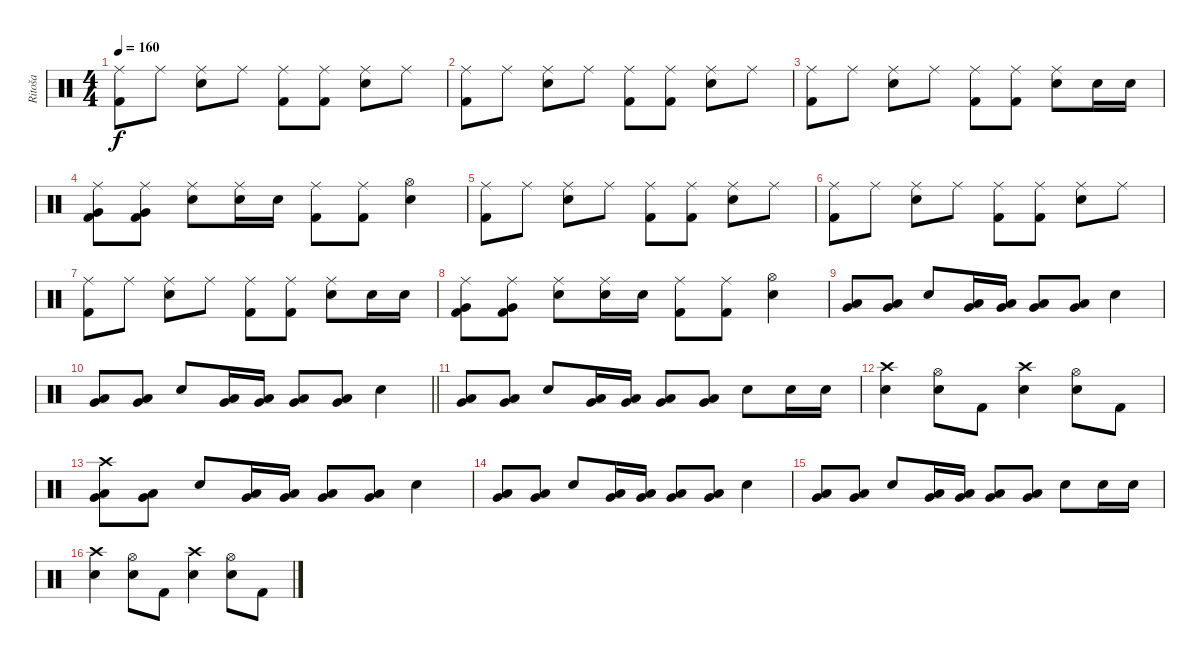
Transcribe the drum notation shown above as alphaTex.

\track ("Ritoša" "Ritoša") {instrument percussion}
\staff {score}
\articulation defaults
\ts (4 4)
\tempo 160
\clef neutral
\ks c
("Ride (middle)" "Kick (hit) 2").8{dy f} "Ride (middle)".8 ("Ride (middle)" "Electric Snare (hit)").8 "Ride (middle)".8 ("Ride (middle)" "Kick (hit) 2").8 ("Ride (middle)" "Kick (hit) 2").8 ("Ride (middle)" "Electric Snare (hit)").8 "Ride (middle)".8 |
("Ride (middle)" "Kick (hit) 2").8 "Ride (middle)".8 ("Ride (middle)" "Electric Snare (hit)").8 "Ride (middle)".8 ("Ride (middle)" "Kick (hit) 2").8 ("Ride (middle)" "Kick (hit) 2").8 ("Ride (middle)" "Electric Snare (hit)").8 "Ride (middle)".8 |
("Ride (middle)" "Kick (hit) 2").8 "Ride (middle)".8 ("Ride (middle)" "Electric Snare (hit)").8 "Ride (middle)".8 ("Ride (middle)" "Kick (hit) 2").8 ("Ride (middle)" "Kick (hit) 2").8 ("Ride (middle)" "Electric Snare (hit)").8 "Electric Snare (hit)".16 "Electric Snare (hit)".16 |
("Ride (middle)" "Very Low Tom (hit)" "Kick (hit) 2").8 ("Ride (middle)" "Very Low Tom (hit)" "Kick (hit) 2").8 ("Ride (middle)" "Electric Snare (hit)").8 ("Ride (middle)" "Electric Snare (hit)").16 "Electric Snare (hit)".16 ("Ride (middle)" "Kick (hit) 2").8 ("Ride (middle)" "Kick (hit) 2").8 ("Hi-Hat (open)" "Electric Snare (hit)").4 |
("Ride (middle)" "Kick (hit) 2").8 "Ride (middle)".8 ("Ride (middle)" "Electric Snare (hit)").8 "Ride (middle)".8 ("Ride (middle)" "Kick (hit) 2").8 ("Ride (middle)" "Kick (hit) 2").8 ("Ride (middle)" "Electric Snare (hit)").8 "Ride (middle)".8 |
("Ride (middle)" "Kick (hit) 2").8 "Ride (middle)".8 ("Ride (middle)" "Electric Snare (hit)").8 "Ride (middle)".8 ("Ride (middle)" "Kick (hit) 2").8 ("Ride (middle)" "Kick (hit) 2").8 ("Ride (middle)" "Electric Snare (hit)").8 "Ride (middle)".8 |
("Ride (middle)" "Kick (hit) 2").8 "Ride (middle)".8 ("Ride (middle)" "Electric Snare (hit)").8 "Ride (middle)".8 ("Ride (middle)" "Kick (hit) 2").8 ("Ride (middle)" "Kick (hit) 2").8 ("Ride (middle)" "Electric Snare (hit)").8 "Electric Snare (hit)".16 "Electric Snare (hit)".16 |
("Ride (middle)" "Very Low Tom (hit)" "Kick (hit) 2").8 ("Ride (middle)" "Very Low Tom (hit)" "Kick (hit) 2").8 ("Ride (middle)" "Electric Snare (hit)").8 ("Ride (middle)" "Electric Snare (hit)").16 "Electric Snare (hit)".16 ("Ride (middle)" "Kick (hit) 2").8 ("Ride (middle)" "Kick (hit) 2").8 ("Hi-Hat (open)" "Electric Snare (hit)").4 |
("Low Floor Tom (hit)" "Very Low Tom (hit)").8 ("Low Floor Tom (hit)" "Very Low Tom (hit)").8 "Electric Snare (hit)".8 ("Low Floor Tom (hit)" "Very Low Tom (hit)").16 ("Low Floor Tom (hit)" "Very Low Tom (hit)").16 ("Low Floor Tom (hit)" "Very Low Tom (hit)").8 ("Low Floor Tom (hit)" "Very Low Tom (hit)").8 "Electric Snare (hit)".4 |
\barLineRight lightlight
("Low Floor Tom (hit)" "Very Low Tom (hit)").8 ("Low Floor Tom (hit)" "Very Low Tom (hit)").8 "Electric Snare (hit)".8 ("Low Floor Tom (hit)" "Very Low Tom (hit)").16 ("Low Floor Tom (hit)" "Very Low Tom (hit)").16 ("Low Floor Tom (hit)" "Very Low Tom (hit)").8 ("Low Floor Tom (hit)" "Very Low Tom (hit)").8 "Electric Snare (hit)".4 |
("Low Floor Tom (hit)" "Very Low Tom (hit)").8 ("Low Floor Tom (hit)" "Very Low Tom (hit)").8 "Electric Snare (hit)".8 ("Low Floor Tom (hit)" "Very Low Tom (hit)").16 ("Low Floor Tom (hit)" "Very Low Tom (hit)").16 ("Low Floor Tom (hit)" "Very Low Tom (hit)").8 ("Low Floor Tom (hit)" "Very Low Tom (hit)").8 "Electric Snare (hit)".8 "Electric Snare (hit)".16 "Electric Snare (hit)".16 |
("Crash high (hit)" "Electric Snare (hit)").4 ("Hi-Hat (open)" "Electric Snare (hit)").8 "Kick (hit) 2".8 ("Crash high (hit)" "Electric Snare (hit)").4 ("Hi-Hat (open)" "Electric Snare (hit)").8 "Kick (hit) 2".8 |
("Crash high (hit)" "Low Floor Tom (hit)" "Very Low Tom (hit)").8 ("Low Floor Tom (hit)" "Very Low Tom (hit)").8 "Electric Snare (hit)".8 ("Low Floor Tom (hit)" "Very Low Tom (hit)").16 ("Low Floor Tom (hit)" "Very Low Tom (hit)").16 ("Low Floor Tom (hit)" "Very Low Tom (hit)").8 ("Low Floor Tom (hit)" "Very Low Tom (hit)").8 "Electric Snare (hit)".4 |
("Low Floor Tom (hit)" "Very Low Tom (hit)").8 ("Low Floor Tom (hit)" "Very Low Tom (hit)").8 "Electric Snare (hit)".8 ("Low Floor Tom (hit)" "Very Low Tom (hit)").16 ("Low Floor Tom (hit)" "Very Low Tom (hit)").16 ("Low Floor Tom (hit)" "Very Low Tom (hit)").8 ("Low Floor Tom (hit)" "Very Low Tom (hit)").8 "Electric Snare (hit)".4 |
("Low Floor Tom (hit)" "Very Low Tom (hit)").8 ("Low Floor Tom (hit)" "Very Low Tom (hit)").8 "Electric Snare (hit)".8 ("Low Floor Tom (hit)" "Very Low Tom (hit)").16 ("Low Floor Tom (hit)" "Very Low Tom (hit)").16 ("Low Floor Tom (hit)" "Very Low Tom (hit)").8 ("Low Floor Tom (hit)" "Very Low Tom (hit)").8 "Electric Snare (hit)".8 "Electric Snare (hit)".16 "Electric Snare (hit)".16 |
("Crash high (hit)" "Electric Snare (hit)").4 ("Hi-Hat (open)" "Electric Snare (hit)").8 "Kick (hit) 2".8 ("Crash high (hit)" "Electric Snare (hit)").4 ("Hi-Hat (open)" "Electric Snare (hit)").8 "Kick (hit) 2".8
